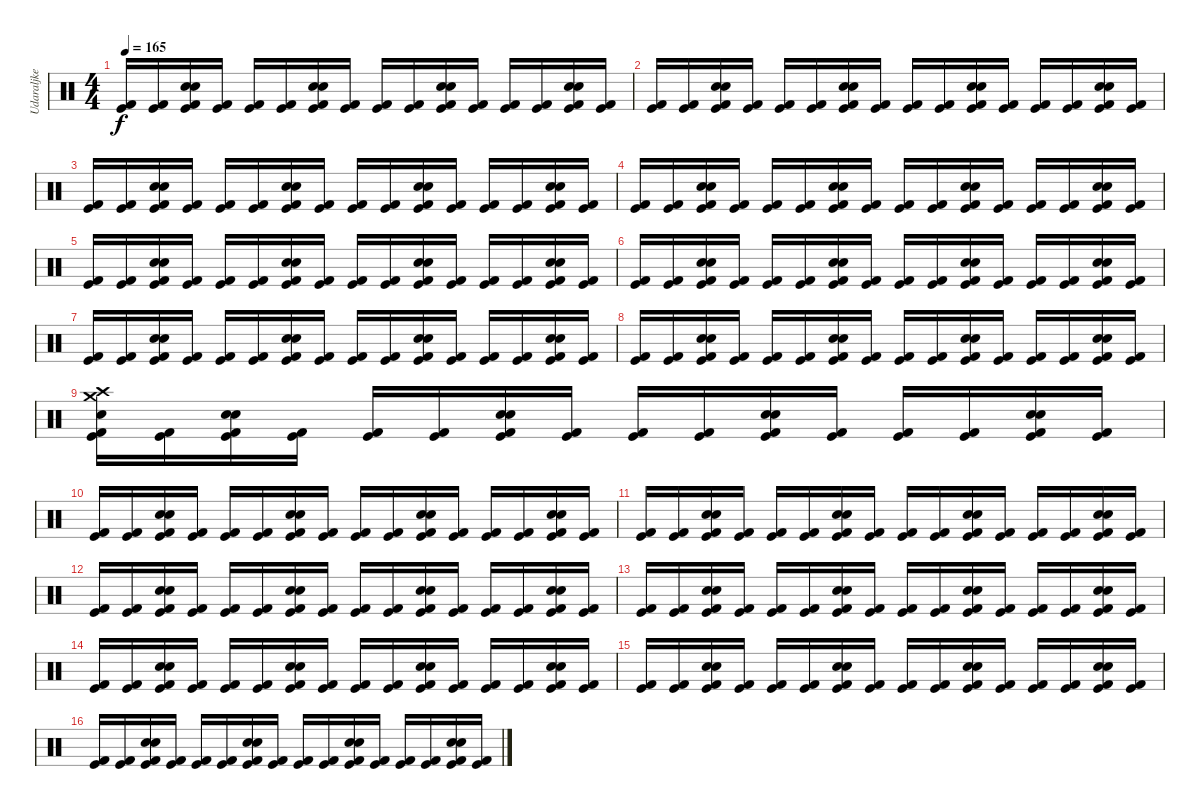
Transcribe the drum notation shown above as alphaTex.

\track ("Udaraljke" "Udaraljke") {instrument percussion}
\staff {score}
\articulation defaults
\ts (4 4)
\tempo 165
\clef neutral
\ks c
("Kick (hit) 2" "Kick (hit)").16{dy f} ("Kick (hit) 2" "Kick (hit)").16 ("Snare (hit) 2" "Snare (hit) 2" "Kick (hit) 2" "Kick (hit)").16 ("Kick (hit) 2" "Kick (hit)").16 ("Kick (hit) 2" "Kick (hit)").16 ("Kick (hit) 2" "Kick (hit)").16 ("Snare (hit) 2" "Snare (hit) 2" "Kick (hit) 2" "Kick (hit)").16 ("Kick (hit) 2" "Kick (hit)").16 ("Kick (hit) 2" "Kick (hit)").16 ("Kick (hit) 2" "Kick (hit)").16 ("Snare (hit) 2" "Snare (hit) 2" "Kick (hit) 2" "Kick (hit)").16 ("Kick (hit) 2" "Kick (hit)").16 ("Kick (hit) 2" "Kick (hit)").16 ("Kick (hit) 2" "Kick (hit)").16 ("Snare (hit) 2" "Snare (hit) 2" "Kick (hit) 2" "Kick (hit)").16 ("Kick (hit) 2" "Kick (hit)").16 |
("Kick (hit) 2" "Kick (hit)").16 ("Kick (hit) 2" "Kick (hit)").16 ("Snare (hit) 2" "Snare (hit) 2" "Kick (hit) 2" "Kick (hit)").16 ("Kick (hit) 2" "Kick (hit)").16 ("Kick (hit) 2" "Kick (hit)").16 ("Kick (hit) 2" "Kick (hit)").16 ("Snare (hit) 2" "Snare (hit) 2" "Kick (hit) 2" "Kick (hit)").16 ("Kick (hit) 2" "Kick (hit)").16 ("Kick (hit) 2" "Kick (hit)").16 ("Kick (hit) 2" "Kick (hit)").16 ("Snare (hit) 2" "Snare (hit) 2" "Kick (hit) 2" "Kick (hit)").16 ("Kick (hit) 2" "Kick (hit)").16 ("Kick (hit) 2" "Kick (hit)").16 ("Kick (hit) 2" "Kick (hit)").16 ("Snare (hit) 2" "Snare (hit) 2" "Kick (hit) 2" "Kick (hit)").16 ("Kick (hit) 2" "Kick (hit)").16 |
("Kick (hit) 2" "Kick (hit)").16 ("Kick (hit) 2" "Kick (hit)").16 ("Snare (hit) 2" "Snare (hit) 2" "Kick (hit) 2" "Kick (hit)").16 ("Kick (hit) 2" "Kick (hit)").16 ("Kick (hit) 2" "Kick (hit)").16 ("Kick (hit) 2" "Kick (hit)").16 ("Snare (hit) 2" "Snare (hit) 2" "Kick (hit) 2" "Kick (hit)").16 ("Kick (hit) 2" "Kick (hit)").16 ("Kick (hit) 2" "Kick (hit)").16 ("Kick (hit) 2" "Kick (hit)").16 ("Snare (hit) 2" "Snare (hit) 2" "Kick (hit) 2" "Kick (hit)").16 ("Kick (hit) 2" "Kick (hit)").16 ("Kick (hit) 2" "Kick (hit)").16 ("Kick (hit) 2" "Kick (hit)").16 ("Snare (hit) 2" "Snare (hit) 2" "Kick (hit) 2" "Kick (hit)").16 ("Kick (hit) 2" "Kick (hit)").16 |
("Kick (hit) 2" "Kick (hit)").16 ("Kick (hit) 2" "Kick (hit)").16 ("Snare (hit) 2" "Snare (hit) 2" "Kick (hit) 2" "Kick (hit)").16 ("Kick (hit) 2" "Kick (hit)").16 ("Kick (hit) 2" "Kick (hit)").16 ("Kick (hit) 2" "Kick (hit)").16 ("Snare (hit) 2" "Snare (hit) 2" "Kick (hit) 2" "Kick (hit)").16 ("Kick (hit) 2" "Kick (hit)").16 ("Kick (hit) 2" "Kick (hit)").16 ("Kick (hit) 2" "Kick (hit)").16 ("Snare (hit) 2" "Snare (hit) 2" "Kick (hit) 2" "Kick (hit)").16 ("Kick (hit) 2" "Kick (hit)").16 ("Kick (hit) 2" "Kick (hit)").16 ("Kick (hit) 2" "Kick (hit)").16 ("Snare (hit) 2" "Snare (hit) 2" "Kick (hit) 2" "Kick (hit)").16 ("Kick (hit) 2" "Kick (hit)").16 |
("Kick (hit) 2" "Kick (hit)").16 ("Kick (hit) 2" "Kick (hit)").16 ("Snare (hit) 2" "Snare (hit) 2" "Kick (hit) 2" "Kick (hit)").16 ("Kick (hit) 2" "Kick (hit)").16 ("Kick (hit) 2" "Kick (hit)").16 ("Kick (hit) 2" "Kick (hit)").16 ("Snare (hit) 2" "Snare (hit) 2" "Kick (hit) 2" "Kick (hit)").16 ("Kick (hit) 2" "Kick (hit)").16 ("Kick (hit) 2" "Kick (hit)").16 ("Kick (hit) 2" "Kick (hit)").16 ("Snare (hit) 2" "Snare (hit) 2" "Kick (hit) 2" "Kick (hit)").16 ("Kick (hit) 2" "Kick (hit)").16 ("Kick (hit) 2" "Kick (hit)").16 ("Kick (hit) 2" "Kick (hit)").16 ("Snare (hit) 2" "Snare (hit) 2" "Kick (hit) 2" "Kick (hit)").16 ("Kick (hit) 2" "Kick (hit)").16 |
("Kick (hit) 2" "Kick (hit)").16 ("Kick (hit) 2" "Kick (hit)").16 ("Snare (hit) 2" "Snare (hit) 2" "Kick (hit) 2" "Kick (hit)").16 ("Kick (hit) 2" "Kick (hit)").16 ("Kick (hit) 2" "Kick (hit)").16 ("Kick (hit) 2" "Kick (hit)").16 ("Snare (hit) 2" "Snare (hit) 2" "Kick (hit) 2" "Kick (hit)").16 ("Kick (hit) 2" "Kick (hit)").16 ("Kick (hit) 2" "Kick (hit)").16 ("Kick (hit) 2" "Kick (hit)").16 ("Snare (hit) 2" "Snare (hit) 2" "Kick (hit) 2" "Kick (hit)").16 ("Kick (hit) 2" "Kick (hit)").16 ("Kick (hit) 2" "Kick (hit)").16 ("Kick (hit) 2" "Kick (hit)").16 ("Snare (hit) 2" "Snare (hit) 2" "Kick (hit) 2" "Kick (hit)").16 ("Kick (hit) 2" "Kick (hit)").16 |
("Kick (hit) 2" "Kick (hit)").16 ("Kick (hit) 2" "Kick (hit)").16 ("Snare (hit) 2" "Snare (hit) 2" "Kick (hit) 2" "Kick (hit)").16 ("Kick (hit) 2" "Kick (hit)").16 ("Kick (hit) 2" "Kick (hit)").16 ("Kick (hit) 2" "Kick (hit)").16 ("Snare (hit) 2" "Snare (hit) 2" "Kick (hit) 2" "Kick (hit)").16 ("Kick (hit) 2" "Kick (hit)").16 ("Kick (hit) 2" "Kick (hit)").16 ("Kick (hit) 2" "Kick (hit)").16 ("Snare (hit) 2" "Snare (hit) 2" "Kick (hit) 2" "Kick (hit)").16 ("Kick (hit) 2" "Kick (hit)").16 ("Kick (hit) 2" "Kick (hit)").16 ("Kick (hit) 2" "Kick (hit)").16 ("Snare (hit) 2" "Snare (hit) 2" "Kick (hit) 2" "Kick (hit)").16 ("Kick (hit) 2" "Kick (hit)").16 |
("Kick (hit) 2" "Kick (hit)").16 ("Kick (hit) 2" "Kick (hit)").16 ("Snare (hit) 2" "Snare (hit) 2" "Kick (hit) 2" "Kick (hit)").16 ("Kick (hit) 2" "Kick (hit)").16 ("Kick (hit) 2" "Kick (hit)").16 ("Kick (hit) 2" "Kick (hit)").16 ("Snare (hit) 2" "Snare (hit) 2" "Kick (hit) 2" "Kick (hit)").16 ("Kick (hit) 2" "Kick (hit)").16 ("Kick (hit) 2" "Kick (hit)").16 ("Kick (hit) 2" "Kick (hit)").16 ("Snare (hit) 2" "Snare (hit) 2" "Kick (hit) 2" "Kick (hit)").16 ("Kick (hit) 2" "Kick (hit)").16 ("Kick (hit) 2" "Kick (hit)").16 ("Kick (hit) 2" "Kick (hit)").16 ("Snare (hit) 2" "Snare (hit) 2" "Kick (hit) 2" "Kick (hit)").16 ("Kick (hit) 2" "Kick (hit)").16 |
("Crash medium (hit)" "Crash high (hit)" "Snare (hit) 2" "Kick (hit) 2" "Kick (hit)").16 ("Kick (hit) 2" "Kick (hit)").16 ("Snare (hit) 2" "Snare (hit) 2" "Kick (hit) 2" "Kick (hit)").16 ("Kick (hit) 2" "Kick (hit)").16 ("Kick (hit) 2" "Kick (hit)").16 ("Kick (hit) 2" "Kick (hit)").16 ("Snare (hit) 2" "Snare (hit) 2" "Kick (hit) 2" "Kick (hit)").16 ("Kick (hit) 2" "Kick (hit)").16 ("Kick (hit) 2" "Kick (hit)").16 ("Kick (hit) 2" "Kick (hit)").16 ("Snare (hit) 2" "Snare (hit) 2" "Kick (hit) 2" "Kick (hit)").16 ("Kick (hit) 2" "Kick (hit)").16 ("Kick (hit) 2" "Kick (hit)").16 ("Kick (hit) 2" "Kick (hit)").16 ("Snare (hit) 2" "Snare (hit) 2" "Kick (hit) 2" "Kick (hit)").16 ("Kick (hit) 2" "Kick (hit)").16 |
("Kick (hit) 2" "Kick (hit)").16 ("Kick (hit) 2" "Kick (hit)").16 ("Snare (hit) 2" "Snare (hit) 2" "Kick (hit) 2" "Kick (hit)").16 ("Kick (hit) 2" "Kick (hit)").16 ("Kick (hit) 2" "Kick (hit)").16 ("Kick (hit) 2" "Kick (hit)").16 ("Snare (hit) 2" "Snare (hit) 2" "Kick (hit) 2" "Kick (hit)").16 ("Kick (hit) 2" "Kick (hit)").16 ("Kick (hit) 2" "Kick (hit)").16 ("Kick (hit) 2" "Kick (hit)").16 ("Snare (hit) 2" "Snare (hit) 2" "Kick (hit) 2" "Kick (hit)").16 ("Kick (hit) 2" "Kick (hit)").16 ("Kick (hit) 2" "Kick (hit)").16 ("Kick (hit) 2" "Kick (hit)").16 ("Snare (hit) 2" "Snare (hit) 2" "Kick (hit) 2" "Kick (hit)").16 ("Kick (hit) 2" "Kick (hit)").16 |
("Kick (hit) 2" "Kick (hit)").16 ("Kick (hit) 2" "Kick (hit)").16 ("Snare (hit) 2" "Snare (hit) 2" "Kick (hit) 2" "Kick (hit)").16 ("Kick (hit) 2" "Kick (hit)").16 ("Kick (hit) 2" "Kick (hit)").16 ("Kick (hit) 2" "Kick (hit)").16 ("Snare (hit) 2" "Snare (hit) 2" "Kick (hit) 2" "Kick (hit)").16 ("Kick (hit) 2" "Kick (hit)").16 ("Kick (hit) 2" "Kick (hit)").16 ("Kick (hit) 2" "Kick (hit)").16 ("Snare (hit) 2" "Snare (hit) 2" "Kick (hit) 2" "Kick (hit)").16 ("Kick (hit) 2" "Kick (hit)").16 ("Kick (hit) 2" "Kick (hit)").16 ("Kick (hit) 2" "Kick (hit)").16 ("Snare (hit) 2" "Snare (hit) 2" "Kick (hit) 2" "Kick (hit)").16 ("Kick (hit) 2" "Kick (hit)").16 |
("Kick (hit) 2" "Kick (hit)").16 ("Kick (hit) 2" "Kick (hit)").16 ("Snare (hit) 2" "Snare (hit) 2" "Kick (hit) 2" "Kick (hit)").16 ("Kick (hit) 2" "Kick (hit)").16 ("Kick (hit) 2" "Kick (hit)").16 ("Kick (hit) 2" "Kick (hit)").16 ("Snare (hit) 2" "Snare (hit) 2" "Kick (hit) 2" "Kick (hit)").16 ("Kick (hit) 2" "Kick (hit)").16 ("Kick (hit) 2" "Kick (hit)").16 ("Kick (hit) 2" "Kick (hit)").16 ("Snare (hit) 2" "Snare (hit) 2" "Kick (hit) 2" "Kick (hit)").16 ("Kick (hit) 2" "Kick (hit)").16 ("Kick (hit) 2" "Kick (hit)").16 ("Kick (hit) 2" "Kick (hit)").16 ("Snare (hit) 2" "Snare (hit) 2" "Kick (hit) 2" "Kick (hit)").16 ("Kick (hit) 2" "Kick (hit)").16 |
("Kick (hit) 2" "Kick (hit)").16 ("Kick (hit) 2" "Kick (hit)").16 ("Snare (hit) 2" "Snare (hit) 2" "Kick (hit) 2" "Kick (hit)").16 ("Kick (hit) 2" "Kick (hit)").16 ("Kick (hit) 2" "Kick (hit)").16 ("Kick (hit) 2" "Kick (hit)").16 ("Snare (hit) 2" "Snare (hit) 2" "Kick (hit) 2" "Kick (hit)").16 ("Kick (hit) 2" "Kick (hit)").16 ("Kick (hit) 2" "Kick (hit)").16 ("Kick (hit) 2" "Kick (hit)").16 ("Snare (hit) 2" "Snare (hit) 2" "Kick (hit) 2" "Kick (hit)").16 ("Kick (hit) 2" "Kick (hit)").16 ("Kick (hit) 2" "Kick (hit)").16 ("Kick (hit) 2" "Kick (hit)").16 ("Snare (hit) 2" "Snare (hit) 2" "Kick (hit) 2" "Kick (hit)").16 ("Kick (hit) 2" "Kick (hit)").16 |
("Kick (hit) 2" "Kick (hit)").16 ("Kick (hit) 2" "Kick (hit)").16 ("Snare (hit) 2" "Snare (hit) 2" "Kick (hit) 2" "Kick (hit)").16 ("Kick (hit) 2" "Kick (hit)").16 ("Kick (hit) 2" "Kick (hit)").16 ("Kick (hit) 2" "Kick (hit)").16 ("Snare (hit) 2" "Snare (hit) 2" "Kick (hit) 2" "Kick (hit)").16 ("Kick (hit) 2" "Kick (hit)").16 ("Kick (hit) 2" "Kick (hit)").16 ("Kick (hit) 2" "Kick (hit)").16 ("Snare (hit) 2" "Snare (hit) 2" "Kick (hit) 2" "Kick (hit)").16 ("Kick (hit) 2" "Kick (hit)").16 ("Kick (hit) 2" "Kick (hit)").16 ("Kick (hit) 2" "Kick (hit)").16 ("Snare (hit) 2" "Snare (hit) 2" "Kick (hit) 2" "Kick (hit)").16 ("Kick (hit) 2" "Kick (hit)").16 |
("Kick (hit) 2" "Kick (hit)").16 ("Kick (hit) 2" "Kick (hit)").16 ("Snare (hit) 2" "Snare (hit) 2" "Kick (hit) 2" "Kick (hit)").16 ("Kick (hit) 2" "Kick (hit)").16 ("Kick (hit) 2" "Kick (hit)").16 ("Kick (hit) 2" "Kick (hit)").16 ("Snare (hit) 2" "Snare (hit) 2" "Kick (hit) 2" "Kick (hit)").16 ("Kick (hit) 2" "Kick (hit)").16 ("Kick (hit) 2" "Kick (hit)").16 ("Kick (hit) 2" "Kick (hit)").16 ("Snare (hit) 2" "Snare (hit) 2" "Kick (hit) 2" "Kick (hit)").16 ("Kick (hit) 2" "Kick (hit)").16 ("Kick (hit) 2" "Kick (hit)").16 ("Kick (hit) 2" "Kick (hit)").16 ("Snare (hit) 2" "Snare (hit) 2" "Kick (hit) 2" "Kick (hit)").16 ("Kick (hit) 2" "Kick (hit)").16 |
("Kick (hit) 2" "Kick (hit)").16 ("Kick (hit) 2" "Kick (hit)").16 ("Snare (hit) 2" "Snare (hit) 2" "Kick (hit) 2" "Kick (hit)").16 ("Kick (hit) 2" "Kick (hit)").16 ("Kick (hit) 2" "Kick (hit)").16 ("Kick (hit) 2" "Kick (hit)").16 ("Snare (hit) 2" "Snare (hit) 2" "Kick (hit) 2" "Kick (hit)").16 ("Kick (hit) 2" "Kick (hit)").16 ("Kick (hit) 2" "Kick (hit)").16 ("Kick (hit) 2" "Kick (hit)").16 ("Snare (hit) 2" "Snare (hit) 2" "Kick (hit) 2" "Kick (hit)").16 ("Kick (hit) 2" "Kick (hit)").16 ("Kick (hit) 2" "Kick (hit)").16 ("Kick (hit) 2" "Kick (hit)").16 ("Snare (hit) 2" "Snare (hit) 2" "Kick (hit) 2" "Kick (hit)").16 ("Kick (hit) 2" "Kick (hit)").16
